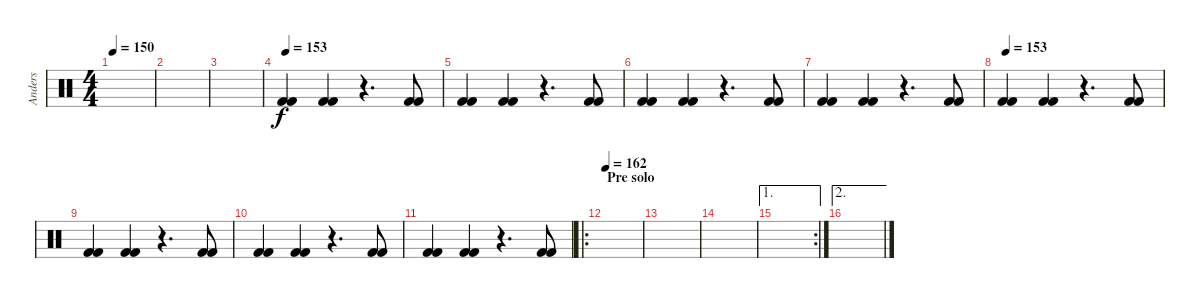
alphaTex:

\track ("Anders" "Anders") {instrument percussion}
\staff {score}
\articulation defaults
\ts (4 4)
\tempo 150
\clef neutral
\ks c
|
|
|
\tempo 153
("Kick (hit) 2" "Kick (hit) 2").4 ("Kick (hit) 2" "Kick (hit) 2").4 r.4{d} ("Kick (hit) 2" "Kick (hit) 2").8 |
("Kick (hit) 2" "Kick (hit) 2").4 ("Kick (hit) 2" "Kick (hit) 2").4 r.4{d} ("Kick (hit) 2" "Kick (hit) 2").8 |
("Kick (hit) 2" "Kick (hit) 2").4 ("Kick (hit) 2" "Kick (hit) 2").4 r.4{d} ("Kick (hit) 2" "Kick (hit) 2").8 |
("Kick (hit) 2" "Kick (hit) 2").4 ("Kick (hit) 2" "Kick (hit) 2").4 r.4{d} ("Kick (hit) 2" "Kick (hit) 2").8 |
\tempo 153
("Kick (hit) 2" "Kick (hit) 2").4 ("Kick (hit) 2" "Kick (hit) 2").4 r.4{d} ("Kick (hit) 2" "Kick (hit) 2").8 |
("Kick (hit) 2" "Kick (hit) 2").4 ("Kick (hit) 2" "Kick (hit) 2").4 r.4{d} ("Kick (hit) 2" "Kick (hit) 2").8 |
("Kick (hit) 2" "Kick (hit) 2").4 ("Kick (hit) 2" "Kick (hit) 2").4 r.4{d} ("Kick (hit) 2" "Kick (hit) 2").8 |
("Kick (hit) 2" "Kick (hit) 2").4 ("Kick (hit) 2" "Kick (hit) 2").4 r.4{d} ("Kick (hit) 2" "Kick (hit) 2").8 |
\ro
\section ("" "Pre solo ")
\tempo 162
|
|
|
\ae 1
\rc 2
|
\ae 2
